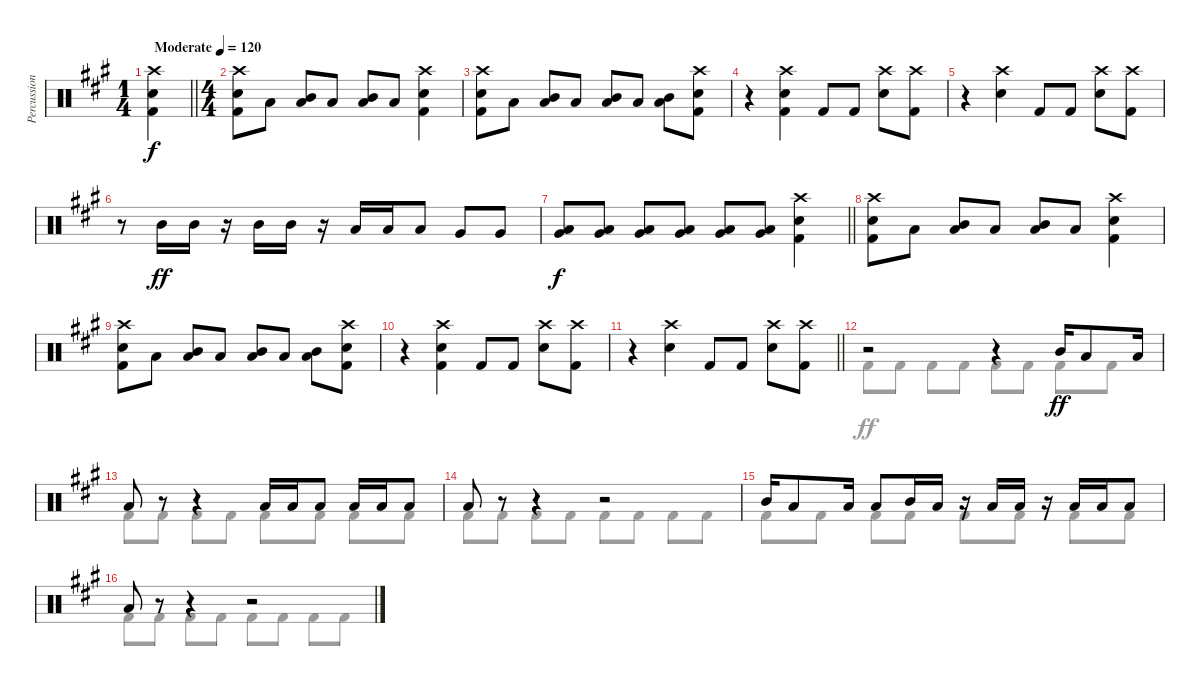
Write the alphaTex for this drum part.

\track ("Percussion" "Percussion") {instrument percussion}
\staff {score}
\articulation defaults
\voice
\ts (1 4)
\tempo (120 "Moderate")
\clef neutral
\barLineRight lightlight
\ks a
("Crash high (hit)" "Snare (hit) 2" "Kick (hit) 2").4{dy f} |
\ts (4 4)
("Crash high (hit)" "Snare (hit) 2" "Kick (hit) 2").8 "Low Floor Tom (hit)".8 ("Mid Tom (hit)" "Low Floor Tom (hit)").8 "Low Floor Tom (hit)".8 ("Mid Tom (hit)" "Low Floor Tom (hit)").8 "Low Floor Tom (hit)".8 ("Crash high (hit)" "Snare (hit) 2" "Kick (hit) 2").4 |
("Crash high (hit)" "Snare (hit) 2" "Kick (hit) 2").8 "Low Floor Tom (hit)".8 ("Mid Tom (hit)" "Low Floor Tom (hit)").8 "Low Floor Tom (hit)".8 ("Mid Tom (hit)" "Low Floor Tom (hit)").8 "Low Floor Tom (hit)".8 ("Mid Tom (hit)" "Low Floor Tom (hit)").8 ("Crash high (hit)" "Snare (hit) 2" "Kick (hit) 2").8 |
r.4 ("Crash high (hit)" "Snare (hit) 2" "Kick (hit) 2").4 "Kick (hit) 2".8 "Kick (hit) 2".8 ("Crash high (hit)" "Snare (hit) 2").8 ("Crash high (hit)" "Kick (hit) 2").8 |
r.4 ("Crash high (hit)" "Snare (hit) 2").4 "Kick (hit) 2".8 "Kick (hit) 2".8 ("Crash high (hit)" "Snare (hit) 2").8 ("Crash high (hit)" "Kick (hit) 2").8 |
r.8 "Mid Tom (hit)".16{dy ff} "Mid Tom (hit)".16 r.16 "Mid Tom (hit)".16 "Mid Tom (hit)".16 r.16 "Low Tom (hit)".16 "Low Tom (hit)".16 "Low Tom (hit)".8 "Very Low Tom (hit)".8 "Very Low Tom (hit)".8 |
\barLineRight lightlight
("Low Floor Tom (hit)" "Very Low Tom (hit)").8{dy f} ("Low Floor Tom (hit)" "Very Low Tom (hit)").8 ("Low Floor Tom (hit)" "Very Low Tom (hit)").8 ("Low Floor Tom (hit)" "Very Low Tom (hit)").8 ("Low Floor Tom (hit)" "Very Low Tom (hit)").8 ("Low Floor Tom (hit)" "Very Low Tom (hit)").8 ("Crash high (hit)" "Snare (hit) 2" "Kick (hit) 2").4 |
("Crash high (hit)" "Snare (hit) 2" "Kick (hit) 2").8 "Low Floor Tom (hit)".8 ("Mid Tom (hit)" "Low Floor Tom (hit)").8 "Low Floor Tom (hit)".8 ("Mid Tom (hit)" "Low Floor Tom (hit)").8 "Low Floor Tom (hit)".8 ("Crash high (hit)" "Snare (hit) 2" "Kick (hit) 2").4 |
("Crash high (hit)" "Snare (hit) 2" "Kick (hit) 2").8 "Low Floor Tom (hit)".8 ("Mid Tom (hit)" "Low Floor Tom (hit)").8 "Low Floor Tom (hit)".8 ("Mid Tom (hit)" "Low Floor Tom (hit)").8 "Low Floor Tom (hit)".8 ("Mid Tom (hit)" "Low Floor Tom (hit)").8 ("Crash high (hit)" "Snare (hit) 2" "Kick (hit) 2").8 |
r.4 ("Crash high (hit)" "Snare (hit) 2" "Kick (hit) 2").4 "Kick (hit) 2".8 "Kick (hit) 2".8 ("Crash high (hit)" "Snare (hit) 2").8 ("Crash high (hit)" "Kick (hit) 2").8 |
\barLineRight lightlight
r.4 ("Crash high (hit)" "Snare (hit) 2").4 "Kick (hit) 2".8 "Kick (hit) 2".8 ("Crash high (hit)" "Snare (hit) 2").8 ("Crash high (hit)" "Kick (hit) 2").8 |
r.2 r.4 "Mid Tom (hit)".16{dy ff} "Low Floor Tom (hit)".8 "Low Tom (hit)".16 |
"Low Tom (hit)".8 r.8 r.4 "Low Tom (hit)".16 "Low Tom (hit)".16 "Low Tom (hit)".8 "Low Floor Tom (hit)".16 "Low Floor Tom (hit)".16 "Low Floor Tom (hit)".8 |
"Low Floor Tom (hit)".8 r.8 r.4 r.2 |
"Mid Tom (hit)".16 "Low Floor Tom (hit)".8 "Low Floor Tom (hit)".16 "Low Floor Tom (hit)".8 "Mid Tom (hit)".16 "Low Floor Tom (hit)".16 r.16 "Low Floor Tom (hit)".16 "Low Floor Tom (hit)".16 r.16 "Low Tom (hit)".16 "Low Tom (hit)".16 "Low Tom (hit)".8 |
"Low Tom (hit)".8 r.8 r.4 r.2
\voice
\clef neutral
\ottava regular
\simile none
\barLineRight lightlight
\ks a
|
|
|
|
|
|
\barLineRight lightlight
|
|
|
|
\barLineRight lightlight
|
"Kick (hit) 2".8 "Kick (hit) 2".8 "Kick (hit) 2".8 "Kick (hit) 2".8 "Kick (hit) 2".8 "Kick (hit) 2".8 "Kick (hit) 2".8 "Kick (hit) 2".8 |
"Kick (hit) 2".8 "Kick (hit) 2".8 "Kick (hit) 2".8 "Kick (hit) 2".8 "Kick (hit) 2".8 "Kick (hit) 2".8 "Kick (hit) 2".8 "Kick (hit) 2".8 |
"Kick (hit) 2".8 "Kick (hit) 2".8 "Kick (hit) 2".8 "Kick (hit) 2".8 "Kick (hit) 2".8 "Kick (hit) 2".8 "Kick (hit) 2".8 "Kick (hit) 2".8 |
"Kick (hit) 2".8 "Kick (hit) 2".8 "Kick (hit) 2".8 "Kick (hit) 2".8 "Kick (hit) 2".8 "Kick (hit) 2".8 "Kick (hit) 2".8 "Kick (hit) 2".8 |
"Kick (hit) 2".8 "Kick (hit) 2".8 "Kick (hit) 2".8 "Kick (hit) 2".8 "Kick (hit) 2".8 "Kick (hit) 2".8 "Kick (hit) 2".8 "Kick (hit) 2".8
